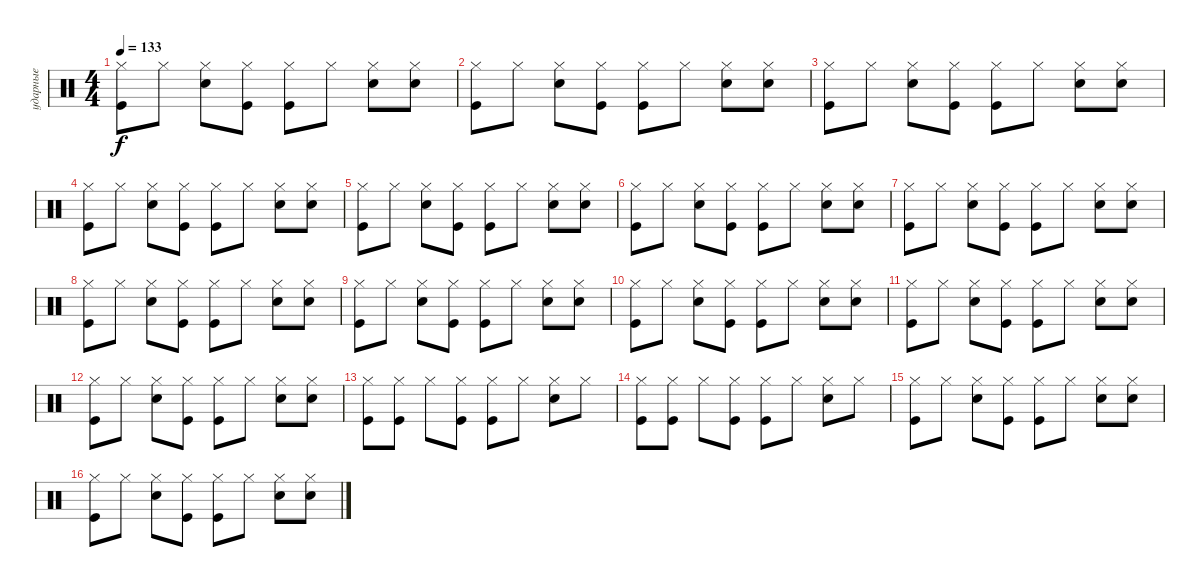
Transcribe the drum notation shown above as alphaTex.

\track ("ударные" "ударные") {instrument percussion}
\staff {score}
\articulation defaults
\ts (4 4)
\tempo 133
\clef neutral
\ks c
("Kick (hit)" "Hi-Hat (closed)").8{dy f} "Hi-Hat (closed)".8 ("Snare (hit) 2" "Hi-Hat (closed)").8 ("Hi-Hat (closed)" "Kick (hit)").8 ("Kick (hit)" "Hi-Hat (closed)").8 "Hi-Hat (closed)".8 ("Hi-Hat (closed)" "Snare (hit) 2").8 ("Snare (hit) 2" "Hi-Hat (closed)").8 |
("Kick (hit)" "Hi-Hat (closed)").8 "Hi-Hat (closed)".8 ("Snare (hit) 2" "Hi-Hat (closed)").8 ("Hi-Hat (closed)" "Kick (hit)").8 ("Kick (hit)" "Hi-Hat (closed)").8 "Hi-Hat (closed)".8 ("Hi-Hat (closed)" "Snare (hit) 2").8 ("Snare (hit) 2" "Hi-Hat (closed)").8 |
("Kick (hit)" "Hi-Hat (closed)").8 "Hi-Hat (closed)".8 ("Snare (hit) 2" "Hi-Hat (closed)").8 ("Hi-Hat (closed)" "Kick (hit)").8 ("Kick (hit)" "Hi-Hat (closed)").8 "Hi-Hat (closed)".8 ("Hi-Hat (closed)" "Snare (hit) 2").8 ("Snare (hit) 2" "Hi-Hat (closed)").8 |
("Kick (hit)" "Hi-Hat (closed)").8 "Hi-Hat (closed)".8 ("Snare (hit) 2" "Hi-Hat (closed)").8 ("Hi-Hat (closed)" "Kick (hit)").8 ("Kick (hit)" "Hi-Hat (closed)").8 "Hi-Hat (closed)".8 ("Hi-Hat (closed)" "Snare (hit) 2").8 ("Snare (hit) 2" "Hi-Hat (closed)").8 |
("Kick (hit)" "Hi-Hat (closed)").8 "Hi-Hat (closed)".8 ("Snare (hit) 2" "Hi-Hat (closed)").8 ("Hi-Hat (closed)" "Kick (hit)").8 ("Kick (hit)" "Hi-Hat (closed)").8 "Hi-Hat (closed)".8 ("Hi-Hat (closed)" "Snare (hit) 2").8 ("Snare (hit) 2" "Hi-Hat (closed)").8 |
("Kick (hit)" "Hi-Hat (closed)").8 "Hi-Hat (closed)".8 ("Snare (hit) 2" "Hi-Hat (closed)").8 ("Hi-Hat (closed)" "Kick (hit)").8 ("Kick (hit)" "Hi-Hat (closed)").8 "Hi-Hat (closed)".8 ("Hi-Hat (closed)" "Snare (hit) 2").8 ("Snare (hit) 2" "Hi-Hat (closed)").8 |
("Kick (hit)" "Hi-Hat (closed)").8 "Hi-Hat (closed)".8 ("Snare (hit) 2" "Hi-Hat (closed)").8 ("Hi-Hat (closed)" "Kick (hit)").8 ("Kick (hit)" "Hi-Hat (closed)").8 "Hi-Hat (closed)".8 ("Hi-Hat (closed)" "Snare (hit) 2").8 ("Snare (hit) 2" "Hi-Hat (closed)").8 |
("Kick (hit)" "Hi-Hat (closed)").8 "Hi-Hat (closed)".8 ("Snare (hit) 2" "Hi-Hat (closed)").8 ("Hi-Hat (closed)" "Kick (hit)").8 ("Kick (hit)" "Hi-Hat (closed)").8 "Hi-Hat (closed)".8 ("Hi-Hat (closed)" "Snare (hit) 2").8 ("Snare (hit) 2" "Hi-Hat (closed)").8 |
("Kick (hit)" "Hi-Hat (closed)").8 "Hi-Hat (closed)".8 ("Snare (hit) 2" "Hi-Hat (closed)").8 ("Hi-Hat (closed)" "Kick (hit)").8 ("Kick (hit)" "Hi-Hat (closed)").8 "Hi-Hat (closed)".8 ("Hi-Hat (closed)" "Snare (hit) 2").8 ("Snare (hit) 2" "Hi-Hat (closed)").8 |
("Kick (hit)" "Hi-Hat (closed)").8 "Hi-Hat (closed)".8 ("Snare (hit) 2" "Hi-Hat (closed)").8 ("Hi-Hat (closed)" "Kick (hit)").8 ("Kick (hit)" "Hi-Hat (closed)").8 "Hi-Hat (closed)".8 ("Hi-Hat (closed)" "Snare (hit) 2").8 ("Snare (hit) 2" "Hi-Hat (closed)").8 |
("Kick (hit)" "Hi-Hat (closed)").8 "Hi-Hat (closed)".8 ("Snare (hit) 2" "Hi-Hat (closed)").8 ("Hi-Hat (closed)" "Kick (hit)").8 ("Kick (hit)" "Hi-Hat (closed)").8 "Hi-Hat (closed)".8 ("Hi-Hat (closed)" "Snare (hit) 2").8 ("Snare (hit) 2" "Hi-Hat (closed)").8 |
("Kick (hit)" "Hi-Hat (closed)").8 "Hi-Hat (closed)".8 ("Snare (hit) 2" "Hi-Hat (closed)").8 ("Hi-Hat (closed)" "Kick (hit)").8 ("Kick (hit)" "Hi-Hat (closed)").8 "Hi-Hat (closed)".8 ("Hi-Hat (closed)" "Snare (hit) 2").8 ("Snare (hit) 2" "Hi-Hat (closed)").8 |
("Kick (hit)" "Hi-Hat (closed)").8 ("Kick (hit)" "Hi-Hat (closed)").8 "Hi-Hat (closed)".8 ("Kick (hit)" "Hi-Hat (closed)").8 ("Hi-Hat (closed)" "Kick (hit)").8 "Hi-Hat (closed)".8 ("Snare (hit) 2" "Hi-Hat (closed)").8 "Hi-Hat (closed)".8 |
("Kick (hit)" "Hi-Hat (closed)").8 ("Kick (hit)" "Hi-Hat (closed)").8 "Hi-Hat (closed)".8 ("Kick (hit)" "Hi-Hat (closed)").8 ("Hi-Hat (closed)" "Kick (hit)").8 "Hi-Hat (closed)".8 ("Snare (hit) 2" "Hi-Hat (closed)").8 "Hi-Hat (closed)".8 |
("Kick (hit)" "Hi-Hat (closed)").8 "Hi-Hat (closed)".8 ("Snare (hit) 2" "Hi-Hat (closed)").8 ("Hi-Hat (closed)" "Kick (hit)").8 ("Kick (hit)" "Hi-Hat (closed)").8 "Hi-Hat (closed)".8 ("Hi-Hat (closed)" "Snare (hit) 2").8 ("Snare (hit) 2" "Hi-Hat (closed)").8 |
("Kick (hit)" "Hi-Hat (closed)").8 "Hi-Hat (closed)".8 ("Snare (hit) 2" "Hi-Hat (closed)").8 ("Hi-Hat (closed)" "Kick (hit)").8 ("Kick (hit)" "Hi-Hat (closed)").8 "Hi-Hat (closed)".8 ("Hi-Hat (closed)" "Snare (hit) 2").8 ("Snare (hit) 2" "Hi-Hat (closed)").8
